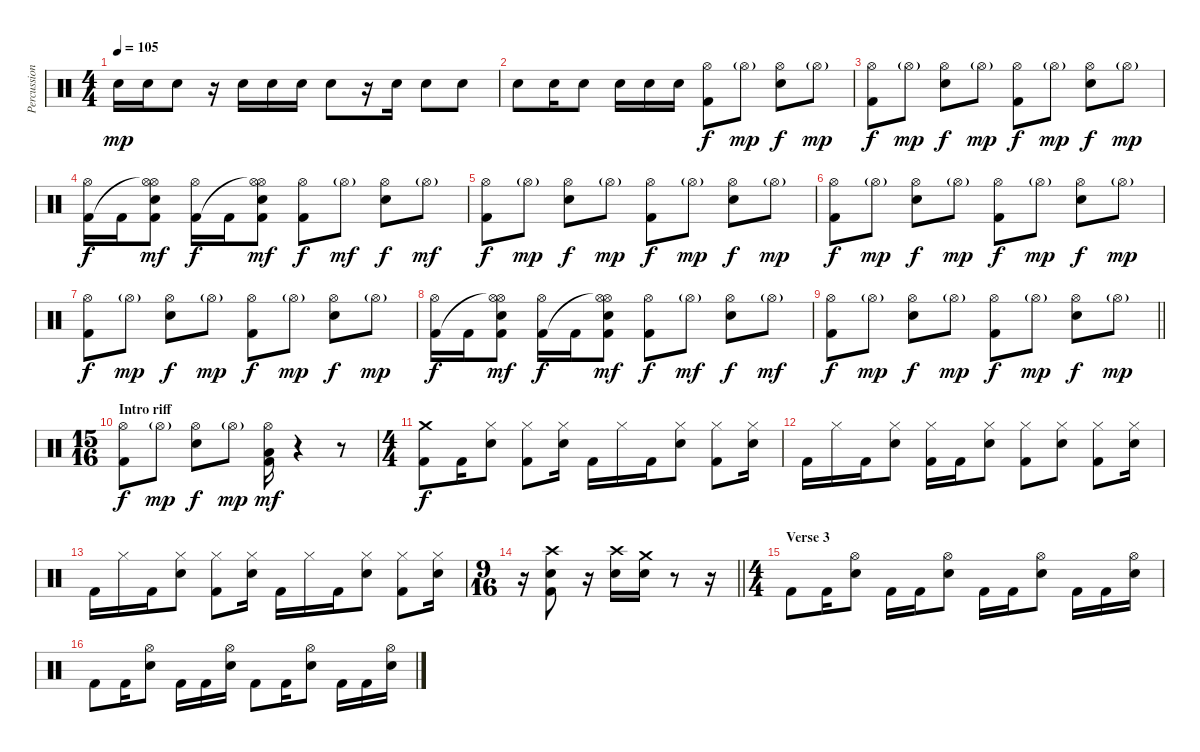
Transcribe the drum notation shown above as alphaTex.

\track ("Percussion" "Percussion") {instrument percussion}
\staff {score}
\articulation defaults
\ts (4 4)
\tempo 105
\clef neutral
\ks c "Snare (hit) 2".16{dy mp} "Snare (hit) 2".16 "Snare (hit) 2".8
r.16 "Snare (hit) 2".16 "Snare (hit) 2".16 "Snare (hit) 2".16 "Snare (hit) 2".8 r.16 "Snare (hit) 2".16 "Snare (hit) 2".8 "Snare (hit) 2".8 |
"Snare (hit) 2".8 "Snare (hit) 2".16 "Snare (hit) 2".8 "Snare (hit) 2".16 "Snare (hit) 2".16 "Snare (hit) 2".16 ("Hi-Hat (open)" "Kick (hit) 2").8{dy f} "Hi-Hat (open)"{g}.8{dy mp} ("Hi-Hat (open)" "Snare (hit) 2").8{dy f} "Hi-Hat (open)"{g}.8{dy mp} |
("Hi-Hat (open)" "Kick (hit) 2").8{dy f} "Hi-Hat (open)"{g}.8{dy mp} ("Hi-Hat (open)" "Snare (hit) 2").8{dy f} "Hi-Hat (open)"{g}.8{dy mp} ("Hi-Hat (open)" "Kick (hit) 2").8{dy f} "Hi-Hat (open)"{g}.8{dy mp} ("Hi-Hat (open)" "Snare (hit) 2").8{dy f} "Hi-Hat (open)"{g}.8{dy mp} |
("Hi-Hat (open)" "Kick (hit) 2").16{dy f} "Kick (hit) 2".16 ("Hi-Hat (open)" "Hi-Hat (open)"{t} "Snare (hit) 2" "Kick (hit) 2").8{dy mf} ("Hi-Hat (open)" "Kick (hit) 2").16{dy f} "Kick (hit) 2".16 ("Hi-Hat (open)" "Hi-Hat (open)"{t} "Snare (hit) 2" "Kick (hit) 2").8{dy mf} ("Hi-Hat (open)" "Kick (hit) 2").8{dy f} "Hi-Hat (open)"{g}.8{dy mf} ("Hi-Hat (open)" "Snare (hit) 2").8{dy f} "Hi-Hat (open)"{g}.8{dy mf} |
("Hi-Hat (open)" "Kick (hit) 2").8{dy f} "Hi-Hat (open)"{g}.8{dy mp} ("Hi-Hat (open)" "Snare (hit) 2").8{dy f} "Hi-Hat (open)"{g}.8{dy mp} ("Hi-Hat (open)" "Kick (hit) 2").8{dy f} "Hi-Hat (open)"{g}.8{dy mp} ("Hi-Hat (open)" "Snare (hit) 2").8{dy f} "Hi-Hat (open)"{g}.8{dy mp} |
("Hi-Hat (open)" "Kick (hit) 2").8{dy f} "Hi-Hat (open)"{g}.8{dy mp} ("Hi-Hat (open)" "Snare (hit) 2").8{dy f} "Hi-Hat (open)"{g}.8{dy mp} ("Hi-Hat (open)" "Kick (hit) 2").8{dy f} "Hi-Hat (open)"{g}.8{dy mp} ("Hi-Hat (open)" "Snare (hit) 2").8{dy f} "Hi-Hat (open)"{g}.8{dy mp} |
("Hi-Hat (open)" "Kick (hit) 2").8{dy f} "Hi-Hat (open)"{g}.8{dy mp} ("Hi-Hat (open)" "Snare (hit) 2").8{dy f} "Hi-Hat (open)"{g}.8{dy mp} ("Hi-Hat (open)" "Kick (hit) 2").8{dy f} "Hi-Hat (open)"{g}.8{dy mp} ("Hi-Hat (open)" "Snare (hit) 2").8{dy f} "Hi-Hat (open)"{g}.8{dy mp} |
("Hi-Hat (open)" "Kick (hit) 2").16{dy f} "Kick (hit) 2".16 ("Hi-Hat (open)" "Hi-Hat (open)"{t} "Snare (hit) 2" "Kick (hit) 2").8{dy mf} ("Hi-Hat (open)" "Kick (hit) 2").16{dy f} "Kick (hit) 2".16 ("Hi-Hat (open)" "Hi-Hat (open)"{t} "Snare (hit) 2" "Kick (hit) 2").8{dy mf} ("Hi-Hat (open)" "Kick (hit) 2").8{dy f} "Hi-Hat (open)"{g}.8{dy mf} ("Hi-Hat (open)" "Snare (hit) 2").8{dy f} "Hi-Hat (open)"{g}.8{dy mf} |
\barLineRight lightlight
("Hi-Hat (open)" "Kick (hit) 2").8{dy f} "Hi-Hat (open)"{g}.8{dy mp} ("Hi-Hat (open)" "Snare (hit) 2").8{dy f} "Hi-Hat (open)"{g}.8{dy mp} ("Hi-Hat (open)" "Kick (hit) 2").8{dy f} "Hi-Hat (open)"{g}.8{dy mp} ("Hi-Hat (open)" "Snare (hit) 2").8{dy f} "Hi-Hat (open)"{g}.8{dy mp} |
\ts (15 16)
\section ("" "Intro riff")
("Hi-Hat (open)" "Kick (hit) 2").8{dy f} "Hi-Hat (open)"{g}.8{dy mp} ("Hi-Hat (open)" "Snare (hit) 2").8{dy f} "Hi-Hat (open)"{g}.8{dy mp} ("Hi-Hat (open)" "Low Tom (hit)" "Kick (hit) 2").16{dy mf} r.4 r.8 |
\ts (4 4)
("Crash medium (hit)" "Kick (hit) 2").8{dy f} "Kick (hit) 2".16 ("Hi-Hat (closed)" "Snare (hit) 2").8 ("Hi-Hat (closed)" "Kick (hit) 2").8 ("Hi-Hat (closed)" "Snare (hit) 2").16 "Kick (hit) 2".16 "Hi-Hat (closed)".16 "Kick (hit) 2".16 ("Hi-Hat (closed)" "Snare (hit) 2").8 ("Hi-Hat (closed)" "Kick (hit) 2").8 ("Hi-Hat (closed)" "Snare (hit) 2").16 |
"Kick (hit) 2".16 "Hi-Hat (closed)".16 "Kick (hit) 2".16 ("Hi-Hat (closed)" "Snare (hit) 2").8 ("Hi-Hat (closed)" "Kick (hit) 2").16 "Kick (hit) 2".16 ("Hi-Hat (closed)" "Snare (hit) 2").8 ("Hi-Hat (closed)" "Kick (hit) 2").8 ("Hi-Hat (closed)" "Snare (hit) 2").8 ("Hi-Hat (closed)" "Kick (hit) 2").8 ("Hi-Hat (closed)" "Snare (hit) 2").16 |
"Kick (hit) 2".16 "Hi-Hat (closed)".16 "Kick (hit) 2".16 ("Hi-Hat (closed)" "Snare (hit) 2").8 ("Hi-Hat (closed)" "Kick (hit) 2").8 ("Hi-Hat (closed)" "Snare (hit) 2").16 "Kick (hit) 2".16 "Hi-Hat (closed)".16 "Kick (hit) 2".16 ("Hi-Hat (closed)" "Snare (hit) 2").8 ("Hi-Hat (closed)" "Kick (hit) 2").8 ("Hi-Hat (closed)" "Snare (hit) 2").16 |
\ts (9 16)
\barLineRight lightlight
r.16 ("Crash high (hit)" "Snare (hit) 2" "Kick (hit) 2").8 r.16 ("Crash high (hit)" "Snare (hit) 2").16 ("Crash medium (hit)" "Snare (hit) 2").16 r.8 r.16 |
\ts (4 4)
\section ("" "Verse 3")
"Kick (hit) 2".8 "Kick (hit) 2".16 ("Hi-Hat (open)" "Snare (hit) 2").8 "Kick (hit) 2".16 "Kick (hit) 2".16 ("Hi-Hat (open)" "Snare (hit) 2").8 "Kick (hit) 2".16 "Kick (hit) 2".16 ("Hi-Hat (open)" "Snare (hit) 2").8 "Kick (hit) 2".16 "Kick (hit) 2".16 ("Hi-Hat (open)" "Snare (hit) 2").16 |
"Kick (hit) 2".8 "Kick (hit) 2".16 ("Hi-Hat (open)" "Snare (hit) 2").8 "Kick (hit) 2".16 "Kick (hit) 2".16 ("Hi-Hat (open)" "Snare (hit) 2").16 "Kick (hit) 2".8 "Kick (hit) 2".16 ("Hi-Hat (open)" "Snare (hit) 2").8 "Kick (hit) 2".16 "Kick (hit) 2".16 ("Hi-Hat (open)" "Snare (hit) 2").16
